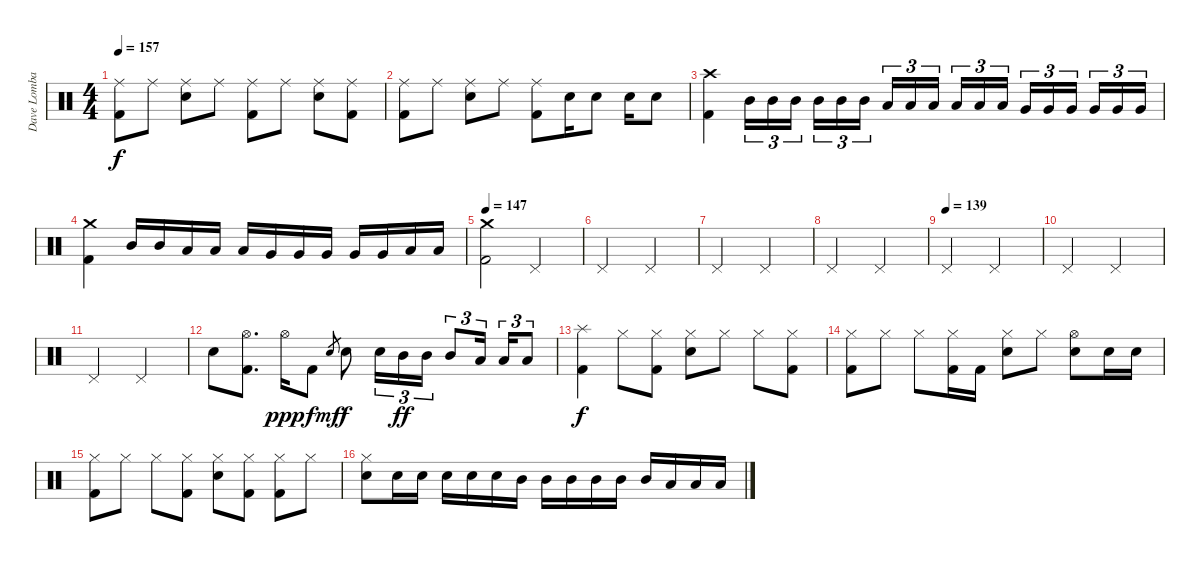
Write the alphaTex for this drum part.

\track ("Dave Lombardo" "Dave Lomba") {instrument percussion}
\staff {score}
\articulation defaults
\ts (4 4)
\tempo 157
\clef neutral
\ks c
("Ride (middle)" "Kick (hit) 2").8{dy f} "Ride (middle)".8 ("Ride (middle)" "Snare (hit) 2").8 "Ride (middle)".8 ("Ride (middle)" "Kick (hit) 2").8 "Ride (middle)".8 ("Ride (middle)" "Snare (hit) 2").8 ("Ride (middle)" "Kick (hit) 2").8 |
("Ride (middle)" "Kick (hit) 2").8 "Ride (middle)".8 ("Ride (middle)" "Snare (hit) 2").8 "Ride (middle)".8 ("Ride (middle)" "Kick (hit) 2").8 "Snare (hit) 2".16 "Snare (hit) 2".8 "Snare (hit) 2".16 "Snare (hit) 2".8 |
("Crash high (hit)" "Kick (hit) 2").4 "Mid Tom (hit)".16{tu (3 2)} "Mid Tom (hit)".16{tu (3 2)} "Mid Tom (hit)".16{tu (3 2) beam splitsecondary} "Mid Tom (hit)".16{tu (3 2)} "Mid Tom (hit)".16{tu (3 2)} "Mid Tom (hit)".16{tu (3 2)} "Low Tom (hit)".16{tu (3 2)} "Low Tom (hit)".16{tu (3 2)} "Low Tom (hit)".16{tu (3 2) beam splitsecondary} "Low Tom (hit)".16{tu (3 2)} "Low Tom (hit)".16{tu (3 2)} "Low Tom (hit)".16{tu (3 2)} "Very Low Tom (hit)".16{tu (3 2)} "Very Low Tom (hit)".16{tu (3 2)} "Very Low Tom (hit)".16{tu (3 2) beam splitsecondary} "Very Low Tom (hit)".16{tu (3 2)} "Very Low Tom (hit)".16{tu (3 2)} "Very Low Tom (hit)".16{tu (3 2)} |
("Crash medium (hit)" "Kick (hit) 2").4 "Mid Tom (hit)".16 "Mid Tom (hit)".16 "Low Tom (hit)".16 "Low Tom (hit)".16 "Low Tom (hit)".16 "Very Low Tom (hit)".16 "Very Low Tom (hit)".16 "Very Low Tom (hit)".16 "Very Low Tom (hit)".16 "Very Low Tom (hit)".16 "Low Floor Tom (hit)".16 "Low Floor Tom (hit)".16 |
\tempo 147
("Crash medium (hit)" "Kick (hit) 2").2 "Pedal Hi-Hat (hit)".2 |
"Pedal Hi-Hat (hit)".2 "Pedal Hi-Hat (hit)".2 |
"Pedal Hi-Hat (hit)".2 "Pedal Hi-Hat (hit)".2 |
"Pedal Hi-Hat (hit)".2 "Pedal Hi-Hat (hit)".2 |
\tempo (139)
"Pedal Hi-Hat (hit)".2 "Pedal Hi-Hat (hit)".2 |
"Pedal Hi-Hat (hit)".2 "Pedal Hi-Hat (hit)".2 |
"Pedal Hi-Hat (hit)".2 "Pedal Hi-Hat (hit)".2 |
"Snare (hit) 2".8 ("Hi-Hat (open)" "Kick (hit) 2").8{d} "Hi-Hat (open)".16{dy ppp} "Kick (hit) 2".8{dy f} "Snare (hit) 2".8{gr dy mf} "Snare (hit) 2".8{dy f} "Snare (hit) 2".16{tu (3 2)} "Mid Tom (hit)".16{tu (3 2) dy ff} "Mid Tom (hit)".16{tu (3 2)} "Mid Tom (hit)".8{tu (3 2)} "Low Tom (hit)".16{tu (3 2) beam splitsecondary} "Low Tom (hit)".16{tu (3 2)} "Low Tom (hit)".8{tu (3 2)} |
("Splash (hit)" "Kick (hit) 2").4{dy f} "Hi-Hat (closed)".8 ("Hi-Hat (closed)" "Kick (hit) 2").8 ("Hi-Hat (closed)" "Snare (hit) 2").8 "Hi-Hat (closed)".8 "Hi-Hat (closed)".8 ("Hi-Hat (closed)" "Kick (hit) 2").8 |
("Hi-Hat (closed)" "Kick (hit) 2").8 "Hi-Hat (closed)".8 "Hi-Hat (closed)".8 ("Hi-Hat (closed)" "Kick (hit) 2").16 "Kick (hit) 2".16 ("Hi-Hat (closed)" "Snare (hit) 2").8 "Hi-Hat (closed)".8 ("Hi-Hat (open)" "Snare (hit) 2").8 "Snare (hit) 2".16 "Snare (hit) 2".16 |
("Hi-Hat (closed)" "Kick (hit) 2").8 "Hi-Hat (closed)".8 "Hi-Hat (closed)".8 ("Hi-Hat (closed)" "Kick (hit) 2").8 ("Hi-Hat (closed)" "Snare (hit) 2").8 ("Hi-Hat (closed)" "Kick (hit) 2").8 ("Hi-Hat (closed)" "Kick (hit) 2").8 "Hi-Hat (closed)".8 |
("Hi-Hat (closed)" "Snare (hit) 2").8 "Snare (hit) 2".16 "Snare (hit) 2".16 "Snare (hit) 2".16 "Snare (hit) 2".16 "Snare (hit) 2".16 "Mid Tom (hit)".16 "Mid Tom (hit)".16 "Mid Tom (hit)".16 "Mid Tom (hit)".16 "Mid Tom (hit)".16 "Mid Tom (hit)".16 "Low Tom (hit)".16 "Low Tom (hit)".16 "Low Tom (hit)".16
